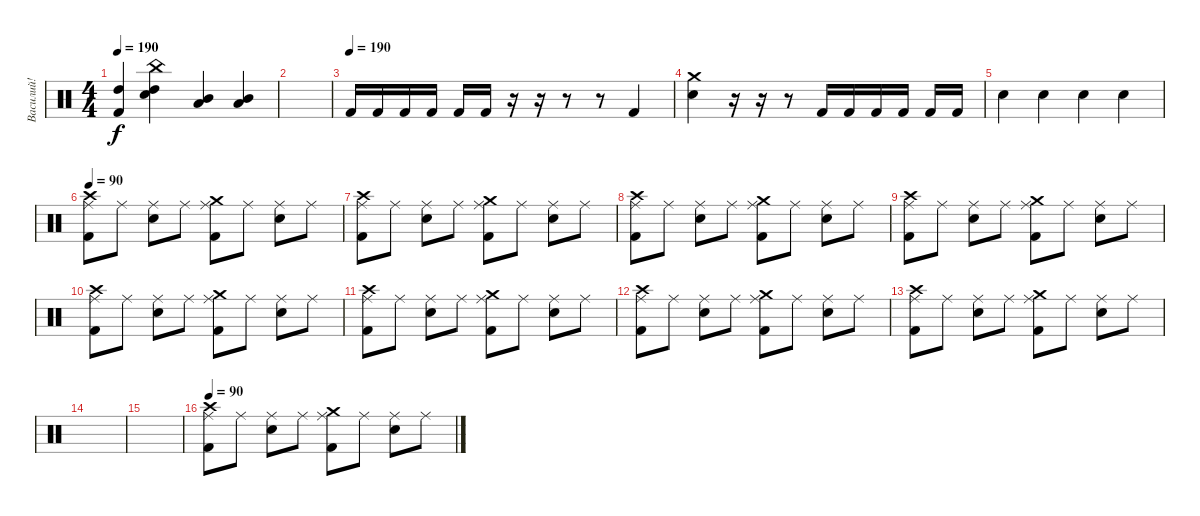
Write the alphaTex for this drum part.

\track ("Василий!" "Василий!") {instrument percussion}
\staff {score}
\articulation defaults
\ts (4 4)
\tempo 190
\clef neutral
\ks c
("Kick (hit) 2" "High Tom (hit)").4{dy f} ("Electric Snare (hit)" "High Tom (hit)" "China (hit)").4 ("Low Tom (hit)" "Mid Tom (hit)").4 ("Mid Tom (hit)" "Low Tom (hit)").4 |
|
\tempo (190)
"Kick (hit) 2".16 "Kick (hit) 2".16 "Kick (hit) 2".16 "Kick (hit) 2".16 "Kick (hit) 2".16 "Kick (hit) 2".16 r.16 r.16 r.8 r.8 "Kick (hit) 2".4 |
("Electric Snare (hit)" "Crash medium (hit)").4 r.16 r.16 r.8 "Kick (hit) 2".16 "Kick (hit) 2".16 "Kick (hit) 2".16 "Kick (hit) 2".16 "Kick (hit) 2".16 "Kick (hit) 2".16 |
"Electric Snare (hit)".4 "Electric Snare (hit)".4 "Electric Snare (hit)".4 "Electric Snare (hit)".4 |
\tempo 90
("Ride (middle)" "Kick (hit) 2" "Crash high (hit)").8 "Ride (middle)".8 ("Ride (middle)" "Electric Snare (hit)").8 "Ride (middle)".8 ("Ride (middle)" "Kick (hit) 2" "Crash medium (hit)").8 "Ride (middle)".8 ("Ride (middle)" "Electric Snare (hit)").8 "Ride (middle)".8 |
("Ride (middle)" "Kick (hit) 2" "Crash high (hit)").8 "Ride (middle)".8 ("Ride (middle)" "Electric Snare (hit)").8 "Ride (middle)".8 ("Ride (middle)" "Kick (hit) 2" "Crash medium (hit)").8 "Ride (middle)".8 ("Ride (middle)" "Electric Snare (hit)").8 "Ride (middle)".8 |
("Ride (middle)" "Kick (hit) 2" "Crash high (hit)").8 "Ride (middle)".8 ("Ride (middle)" "Electric Snare (hit)").8 "Ride (middle)".8 ("Ride (middle)" "Kick (hit) 2" "Crash medium (hit)").8 "Ride (middle)".8 ("Ride (middle)" "Electric Snare (hit)").8 "Ride (middle)".8 |
("Ride (middle)" "Kick (hit) 2" "Crash high (hit)").8 "Ride (middle)".8 ("Ride (middle)" "Electric Snare (hit)").8 "Ride (middle)".8 ("Ride (middle)" "Kick (hit) 2" "Crash medium (hit)").8 "Ride (middle)".8 ("Ride (middle)" "Electric Snare (hit)").8 "Ride (middle)".8 |
("Ride (middle)" "Kick (hit) 2" "Crash high (hit)").8 "Ride (middle)".8 ("Ride (middle)" "Electric Snare (hit)").8 "Ride (middle)".8 ("Ride (middle)" "Kick (hit) 2" "Crash medium (hit)").8 "Ride (middle)".8 ("Ride (middle)" "Electric Snare (hit)").8 "Ride (middle)".8 |
("Ride (middle)" "Kick (hit) 2" "Crash high (hit)").8 "Ride (middle)".8 ("Ride (middle)" "Electric Snare (hit)").8 "Ride (middle)".8 ("Ride (middle)" "Kick (hit) 2" "Crash medium (hit)").8 "Ride (middle)".8 ("Ride (middle)" "Electric Snare (hit)").8 "Ride (middle)".8 |
("Ride (middle)" "Kick (hit) 2" "Crash high (hit)").8 "Ride (middle)".8 ("Ride (middle)" "Electric Snare (hit)").8 "Ride (middle)".8 ("Ride (middle)" "Kick (hit) 2" "Crash medium (hit)").8 "Ride (middle)".8 ("Ride (middle)" "Electric Snare (hit)").8 "Ride (middle)".8 |
("Ride (middle)" "Kick (hit) 2" "Crash high (hit)").8 "Ride (middle)".8 ("Ride (middle)" "Electric Snare (hit)").8 "Ride (middle)".8 ("Ride (middle)" "Kick (hit) 2" "Crash medium (hit)").8 "Ride (middle)".8 ("Ride (middle)" "Electric Snare (hit)").8 "Ride (middle)".8 |
|
|
\tempo 90
("Ride (middle)" "Kick (hit) 2" "Crash high (hit)").8 "Ride (middle)".8 ("Ride (middle)" "Electric Snare (hit)").8 "Ride (middle)".8 ("Ride (middle)" "Kick (hit) 2" "Crash medium (hit)").8 "Ride (middle)".8 ("Ride (middle)" "Electric Snare (hit)").8 "Ride (middle)".8
